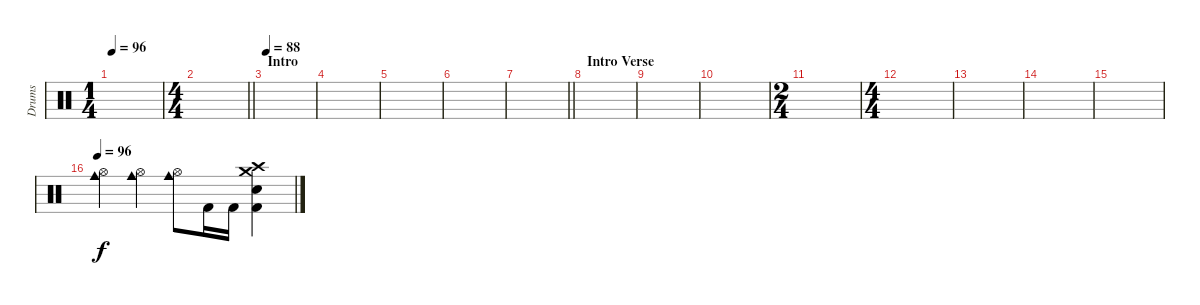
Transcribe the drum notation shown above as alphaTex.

\track ("Drums" "Drums") {instrument percussion}
\staff {score}
\articulation defaults
\ts (1 4)
\tempo 96
\clef neutral
\ks c
|
\ts (4 4)
\barLineRight lightlight
|
\section ("" "Intro")
\tempo 88
|
|
|
|
\barLineRight lightlight
|
\section ("" "Intro Verse")
|
|
|
\ts (2 4)
|
\ts (4 4)
|
|
|
|
\tempo 96
("Cowbell medium (hit)" "Hi-Hat (open)").4 ("Cowbell medium (hit)" "Hi-Hat (open)").4 ("Cowbell medium (hit)" "Hi-Hat (open)").8 "Kick (hit) 2".16 "Kick (hit) 2".16 ("Snare (hit) 2" "Crash medium (hit)" "Kick (hit) 2" "Crash high (hit)").4
